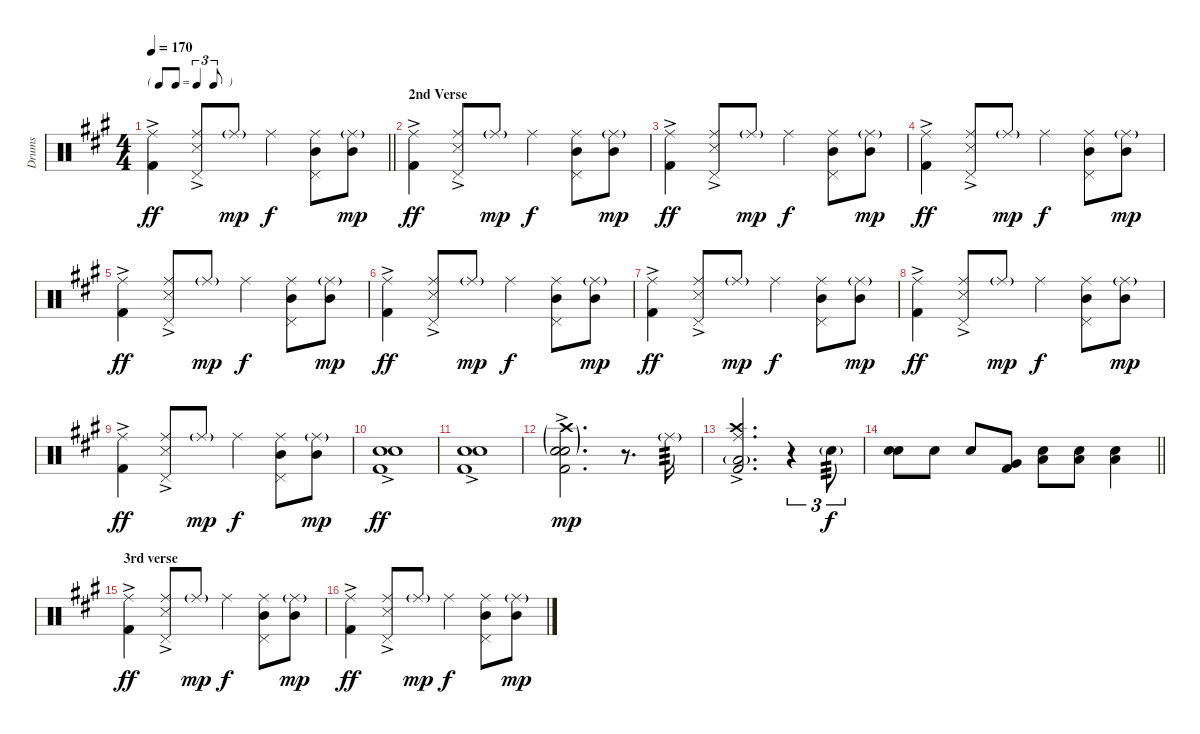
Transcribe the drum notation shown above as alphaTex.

\track ("Drums" "Drums") {instrument percussion}
\staff {score}
\articulation defaults
\ts (4 4)
\tf triplet8th
\tempo 170
\clef neutral
\barLineRight lightlight
\ks a
("Kick (hit) 2"{ac} "Ride (middle)").4{dy ff} ("Snare (side stick) 3"{ac} "Pedal Hi-Hat (hit)" "Ride (middle)").8 "Ride (middle)"{g}.8{dy mp} "Ride (middle)".4{dy f} ("Mid Tom (hit)" "Pedal Hi-Hat (hit)" "Ride (middle)").8 ("Mid Tom (hit)" "Ride (middle)"{g}).8{dy mp} |
\section ("" "2nd Verse")
("Kick (hit) 2"{ac} "Ride (middle)").4{dy ff} ("Snare (side stick) 3"{ac} "Pedal Hi-Hat (hit)" "Ride (middle)").8 "Ride (middle)"{g}.8{dy mp} "Ride (middle)".4{dy f} ("Mid Tom (hit)" "Pedal Hi-Hat (hit)" "Ride (middle)").8 ("Mid Tom (hit)" "Ride (middle)"{g}).8{dy mp} |
("Kick (hit) 2"{ac} "Ride (middle)").4{dy ff} ("Snare (side stick) 3"{ac} "Pedal Hi-Hat (hit)" "Ride (middle)").8 "Ride (middle)"{g}.8{dy mp} "Ride (middle)".4{dy f} ("Mid Tom (hit)" "Pedal Hi-Hat (hit)" "Ride (middle)").8 ("Mid Tom (hit)" "Ride (middle)"{g}).8{dy mp} |
("Kick (hit) 2"{ac} "Ride (middle)").4{dy ff} ("Snare (side stick) 3"{ac} "Pedal Hi-Hat (hit)" "Ride (middle)").8 "Ride (middle)"{g}.8{dy mp} "Ride (middle)".4{dy f} ("Mid Tom (hit)" "Pedal Hi-Hat (hit)" "Ride (middle)").8 ("Mid Tom (hit)" "Ride (middle)"{g}).8{dy mp} |
("Kick (hit) 2"{ac} "Ride (middle)").4{dy ff} ("Snare (side stick) 3"{ac} "Pedal Hi-Hat (hit)" "Ride (middle)").8 "Ride (middle)"{g}.8{dy mp} "Ride (middle)".4{dy f} ("Mid Tom (hit)" "Pedal Hi-Hat (hit)" "Ride (middle)").8 ("Mid Tom (hit)" "Ride (middle)"{g}).8{dy mp} |
("Kick (hit) 2"{ac} "Ride (middle)").4{dy ff} ("Snare (side stick) 3"{ac} "Pedal Hi-Hat (hit)" "Ride (middle)").8 "Ride (middle)"{g}.8{dy mp} "Ride (middle)".4{dy f} ("Mid Tom (hit)" "Pedal Hi-Hat (hit)" "Ride (middle)").8 ("Mid Tom (hit)" "Ride (middle)"{g}).8{dy mp} |
("Kick (hit) 2"{ac} "Ride (middle)").4{dy ff} ("Snare (side stick) 3"{ac} "Pedal Hi-Hat (hit)" "Ride (middle)").8 "Ride (middle)"{g}.8{dy mp} "Ride (middle)".4{dy f} ("Mid Tom (hit)" "Pedal Hi-Hat (hit)" "Ride (middle)").8 ("Mid Tom (hit)" "Ride (middle)"{g}).8{dy mp} |
("Kick (hit) 2"{ac} "Ride (middle)").4{dy ff} ("Snare (side stick) 3"{ac} "Pedal Hi-Hat (hit)" "Ride (middle)").8 "Ride (middle)"{g}.8{dy mp} "Ride (middle)".4{dy f} ("Mid Tom (hit)" "Pedal Hi-Hat (hit)" "Ride (middle)").8 ("Mid Tom (hit)" "Ride (middle)"{g}).8{dy mp} |
("Kick (hit) 2"{ac} "Ride (middle)").4{dy ff} ("Snare (side stick) 3"{ac} "Pedal Hi-Hat (hit)" "Ride (middle)").8 "Ride (middle)"{g}.8{dy mp} "Ride (middle)".4{dy f} ("Mid Tom (hit)" "Pedal Hi-Hat (hit)" "Ride (middle)").8 ("Mid Tom (hit)" "Ride (middle)"{g}).8{dy mp} |
("Kick (hit) 2"{ac} "Electric Snare (hit)"{ac} "Snare (hit) 2").1{dy ff} |
("Kick (hit) 2"{ac} "Electric Snare (hit)"{ac} "Snare (hit) 2").1 |
("Kick (hit) 2"{ac} "Electric Snare (hit)"{g} "Snare (hit) 2"{g} "Crash high (hit)"{g}).2{d dy mp} r.8{d} "Ride (middle)"{g}.16{tp 3} |
("Kick (hit) 2"{ac} "Low Tom (hit)"{g} "Ride (middle)" "Crash high (hit)").2{d} r.4{tu (3 2)} "Snare (hit) 2"{g}.8{tu (3 2) tp 3 dy f} |
\barLineRight lightlight
("Snare (hit) 2" "Electric Snare (hit)").8 "Snare (hit) 2".8 "Snare (hit) 2".8 ("Kick (hit) 2" "Very Low Tom (hit)").8 ("Electric Snare (hit)" "Low Tom (hit)").8 ("Electric Snare (hit)" "Low Tom (hit)").8 ("Electric Snare (hit)" "Low Tom (hit)").4 |
\section ("" "3rd verse")
("Kick (hit) 2"{ac} "Ride (middle)").4{dy ff} ("Snare (side stick) 3"{ac} "Pedal Hi-Hat (hit)" "Ride (middle)").8 "Ride (middle)"{g}.8{dy mp} "Ride (middle)".4{dy f} ("Mid Tom (hit)" "Pedal Hi-Hat (hit)" "Ride (middle)").8 ("Mid Tom (hit)" "Ride (middle)"{g}).8{dy mp} |
("Kick (hit) 2"{ac} "Ride (middle)").4{dy ff} ("Snare (side stick) 3"{ac} "Pedal Hi-Hat (hit)" "Ride (middle)").8 "Ride (middle)"{g}.8{dy mp} "Ride (middle)".4{dy f} ("Mid Tom (hit)" "Pedal Hi-Hat (hit)" "Ride (middle)").8 ("Mid Tom (hit)" "Ride (middle)"{g}).8{dy mp}
